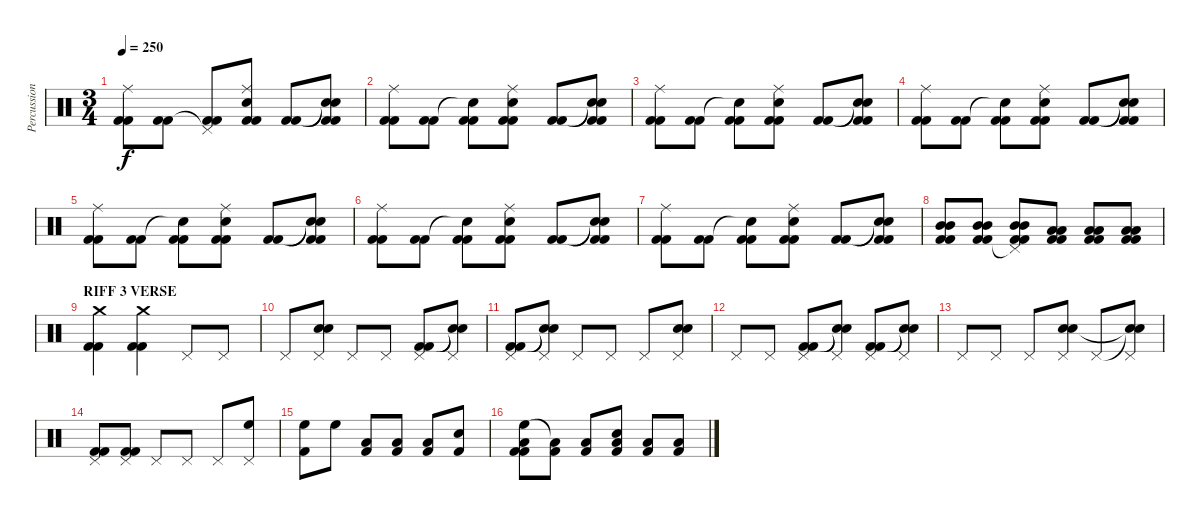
\track ("Percussion" "Percussion") {instrument percussion}
\staff {score}
\articulation defaults
\ts (3 4)
\tempo 250
\clef neutral
\ks c
("Ride (middle)" "Kick (hit) 2" "Kick (hit) 2").8{dy f} ("Kick (hit) 2" "Kick (hit) 2").8 ("Pedal Hi-Hat (hit)"{t} "Kick (hit) 2" "Kick (hit) 2").8 ("Snare (hit) 2" "Ride (middle)" "Kick (hit) 2" "Kick (hit) 2").8 ("Kick (hit) 2" "Kick (hit) 2").8 ("Snare (hit)"{t} "Snare (hit)"{t} "Kick (hit) 2" "Kick (hit) 2").8 |
("Ride (middle)" "Kick (hit) 2" "Kick (hit) 2").8 ("Kick (hit) 2" "Kick (hit) 2").8 ("Snare (hit)"{t} "Kick (hit) 2" "Kick (hit) 2").8 ("Snare (hit) 2" "Ride (middle)" "Kick (hit) 2" "Kick (hit) 2").8 ("Kick (hit) 2" "Kick (hit) 2").8 ("Snare (hit)"{t} "Snare (hit)"{t} "Kick (hit) 2" "Kick (hit) 2").8 |
("Ride (middle)" "Kick (hit) 2" "Kick (hit) 2").8 ("Kick (hit) 2" "Kick (hit) 2").8 ("Snare (hit)"{t} "Kick (hit) 2" "Kick (hit) 2").8 ("Snare (hit) 2" "Ride (middle)" "Kick (hit) 2" "Kick (hit) 2").8 ("Kick (hit) 2" "Kick (hit) 2").8 ("Snare (hit)"{t} "Snare (hit)"{t} "Kick (hit) 2" "Kick (hit) 2").8 |
("Ride (middle)" "Kick (hit) 2" "Kick (hit) 2").8 ("Kick (hit) 2" "Kick (hit) 2").8 ("Snare (hit)"{t} "Kick (hit) 2" "Kick (hit) 2").8 ("Snare (hit) 2" "Ride (middle)" "Kick (hit) 2" "Kick (hit) 2").8 ("Kick (hit) 2" "Kick (hit) 2").8 ("Snare (hit)"{t} "Snare (hit)"{t} "Kick (hit) 2" "Kick (hit) 2").8 |
("Ride (middle)" "Kick (hit) 2" "Kick (hit) 2").8 ("Kick (hit) 2" "Kick (hit) 2").8 ("Snare (hit)"{t} "Kick (hit) 2" "Kick (hit) 2").8 ("Snare (hit) 2" "Ride (middle)" "Kick (hit) 2" "Kick (hit) 2").8 ("Kick (hit) 2" "Kick (hit) 2").8 ("Snare (hit)"{t} "Snare (hit)"{t} "Kick (hit) 2" "Kick (hit) 2").8 |
("Ride (middle)" "Kick (hit) 2" "Kick (hit) 2").8 ("Kick (hit) 2" "Kick (hit) 2").8 ("Snare (hit)"{t} "Kick (hit) 2" "Kick (hit) 2").8 ("Snare (hit) 2" "Ride (middle)" "Kick (hit) 2" "Kick (hit) 2").8 ("Kick (hit) 2" "Kick (hit) 2").8 ("Snare (hit)"{t} "Snare (hit)"{t} "Kick (hit) 2" "Kick (hit) 2").8 |
("Ride (middle)" "Kick (hit) 2" "Kick (hit) 2").8 ("Kick (hit) 2" "Kick (hit) 2").8 ("Snare (hit)"{t} "Kick (hit) 2" "Kick (hit) 2").8 ("Snare (hit) 2" "Ride (middle)" "Kick (hit) 2" "Kick (hit) 2").8 ("Kick (hit) 2" "Kick (hit) 2").8 ("Snare (hit)"{t} "Snare (hit)"{t} "Kick (hit) 2" "Kick (hit) 2").8 |
("Mid Tom (hit)" "Mid Tom (hit)" "Kick (hit) 2" "Kick (hit) 2").8 ("Mid Tom (hit)" "Mid Tom (hit)" "Kick (hit) 2" "Kick (hit) 2").8 ("Mid Tom (hit)" "Mid Tom (hit)" "Pedal Hi-Hat (hit)"{t} "Kick (hit) 2" "Kick (hit) 2").8 ("Low Floor Tom (hit)" "Low Floor Tom (hit)" "Kick (hit) 2" "Kick (hit) 2").8 ("Low Floor Tom (hit)" "Low Floor Tom (hit)" "Kick (hit) 2" "Kick (hit) 2").8 ("Low Floor Tom (hit)" "Low Floor Tom (hit)" "Kick (hit) 2" "Kick (hit) 2").8 |
\section ("" "RIFF 3 VERSE")
("Crash medium (hit)" "Kick (hit) 2" "Kick (hit) 2").4 ("Crash medium (hit)" "Kick (hit) 2" "Kick (hit) 2").4 "Pedal Hi-Hat (hit)".8 "Pedal Hi-Hat (hit)".8 |
"Pedal Hi-Hat (hit)".8 ("Snare (hit) 2" "Snare (hit) 2" "Pedal Hi-Hat (hit)").8 "Pedal Hi-Hat (hit)".8 "Pedal Hi-Hat (hit)".8 ("Pedal Hi-Hat (hit)" "Kick (hit) 2" "Kick (hit) 2").8 ("Pedal Hi-Hat (hit)" "Snare (hit)"{t} "Snare (hit)"{t}).8 |
("Pedal Hi-Hat (hit)" "Kick (hit) 2" "Kick (hit) 2").8 ("Pedal Hi-Hat (hit)" "Snare (hit)"{t} "Snare (hit)"{t}).8 "Pedal Hi-Hat (hit)".8 "Pedal Hi-Hat (hit)".8 "Pedal Hi-Hat (hit)".8 ("Snare (hit) 2" "Snare (hit) 2" "Pedal Hi-Hat (hit)").8 |
"Pedal Hi-Hat (hit)".8 "Pedal Hi-Hat (hit)".8 ("Pedal Hi-Hat (hit)" "Kick (hit) 2" "Kick (hit) 2").8 ("Pedal Hi-Hat (hit)" "Snare (hit)"{t} "Snare (hit)"{t}).8 ("Pedal Hi-Hat (hit)" "Kick (hit) 2" "Kick (hit) 2").8 ("Pedal Hi-Hat (hit)" "Snare (hit)"{t} "Snare (hit)"{t}).8 |
"Pedal Hi-Hat (hit)".8 "Pedal Hi-Hat (hit)".8 "Pedal Hi-Hat (hit)".8 ("Snare (hit) 2" "Snare (hit) 2" "Pedal Hi-Hat (hit)").8 "Pedal Hi-Hat (hit)".8 ("Snare (hit)"{t} "Snare (hit)"{t} "Pedal Hi-Hat (hit)").8 |
("Pedal Hi-Hat (hit)" "Kick (hit) 2" "Kick (hit) 2").8 ("Pedal Hi-Hat (hit)" "Kick (hit) 2" "Kick (hit) 2").8 "Pedal Hi-Hat (hit)".8 "Pedal Hi-Hat (hit)".8 "Pedal Hi-Hat (hit)".8 ("High Floor Tom (hit)" "Pedal Hi-Hat (hit)").8 |
("High Floor Tom (hit)" "Kick (hit) 2").8 "High Floor Tom (hit)".8 ("Low Tom (hit)" "Kick (hit) 2").8 ("Low Tom (hit)" "Kick (hit) 2").8 ("Low Tom (hit)" "Kick (hit) 2").8 ("Snare (hit) 2" "Kick (hit) 2").8 |
("High Floor Tom (hit)" "Low Floor Tom (hit)" "Kick (hit) 2" "Kick (hit) 2").8 ("Low Floor Tom (hit)"{t} "Kick (hit) 2").8 ("Low Floor Tom (hit)" "Kick (hit) 2").8 ("Snare (hit) 2" "Low Tom (hit)" "Kick (hit) 2").8 ("Low Tom (hit)" "Kick (hit) 2").8 ("Low Tom (hit)" "Kick (hit) 2").8
